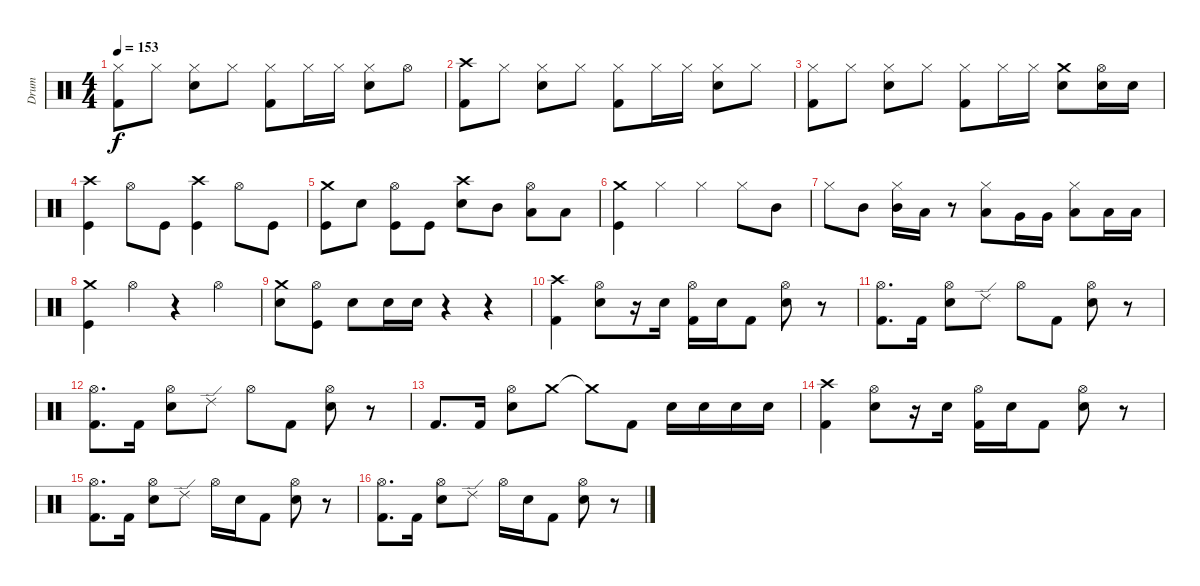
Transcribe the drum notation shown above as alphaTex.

\track ("Drum" "Drum") {instrument percussion}
\staff {score}
\articulation defaults
\ts (4 4)
\tempo 153
\clef neutral
\ks c
("Hi-Hat (closed)" "Kick (hit) 2").8{dy f} "Hi-Hat (closed)".8 ("Hi-Hat (closed)" "Electric Snare (hit)").8 "Hi-Hat (closed)".8 ("Hi-Hat (closed)" "Kick (hit) 2").8 "Hi-Hat (closed)".16 "Hi-Hat (closed)".16 ("Hi-Hat (closed)" "Electric Snare (hit)").8 "Hi-Hat (open)".8 |
("Kick (hit) 2" "Crash high (hit)").8 "Hi-Hat (closed)".8 ("Hi-Hat (closed)" "Electric Snare (hit)").8 "Hi-Hat (closed)".8 ("Hi-Hat (closed)" "Kick (hit) 2").8 "Hi-Hat (closed)".16 "Hi-Hat (closed)".16 ("Hi-Hat (closed)" "Electric Snare (hit)").8 "Hi-Hat (closed)".8 |
("Hi-Hat (closed)" "Kick (hit) 2").8 "Hi-Hat (closed)".8 ("Hi-Hat (closed)" "Electric Snare (hit)").8 "Hi-Hat (closed)".8 ("Hi-Hat (closed)" "Kick (hit) 2").8 "Hi-Hat (closed)".16 "Hi-Hat (closed)".16 ("Electric Snare (hit)" "Crash medium (hit)").8 ("Hi-Hat (open)" "Electric Snare (hit)").16 "Electric Snare (hit)".16 |
("Kick (hit)" "Crash high (hit)").4 "Hi-Hat (open)".8 "Kick (hit)".8 ("Kick (hit)" "Crash high (hit)").4 "Hi-Hat (open)".8 "Kick (hit)".8 |
("Kick (hit)" "Crash medium (hit)").8 "Electric Snare (hit)".8 ("Hi-Hat (open)" "Kick (hit)").8 "Kick (hit)".8 ("Crash high (hit)" "Electric Snare (hit)").8 "Mid Tom (hit)".8 ("Hi-Hat (open)" "Low Tom (hit)").8 "Low Floor Tom (hit)".8 |
("Kick (hit)" "Crash medium (hit)").4 "Hi-Hat (closed)".4 "Hi-Hat (closed)".4 "Hi-Hat (closed)".8 "Mid Tom (hit)".8 |
"Hi-Hat (closed)".8 "Mid Tom (hit)".8 ("Mid Tom (hit)" "Hi-Hat (closed)").16 "Low Tom (hit)".16 r.8 ("Low Tom (hit)" "Hi-Hat (closed)").8 "Very Low Tom (hit)".16 "Very Low Tom (hit)".16 ("Low Floor Tom (hit)" "Hi-Hat (closed)").8 "Low Floor Tom (hit)".16 "Low Floor Tom (hit)".16 |
("Kick (hit)" "Crash medium (hit)").4 "Hi-Hat (open)".4 r.4 "Hi-Hat (open)".4 |
("Snare (hit) 2" "Crash medium (hit)").8 ("Kick (hit)" "Hi-Hat (open)").8 "Snare (hit) 2".8 "Snare (hit) 2".16 "Snare (hit) 2".16 r.4 r.4 |
("Crash high (hit)" "Kick (hit) 2").4 ("Hi-Hat (open)" "Snare (hit) 2").8 r.16 "Snare (hit) 2".16 ("Hi-Hat (open)" "Kick (hit) 2").16 "Snare (hit) 2".16 "Kick (hit) 2".8 ("Hi-Hat (open)" "Snare (hit) 2").8 r.8 |
("Hi-Hat (open)" "Kick (hit) 2").8{d} "Kick (hit) 2".16 ("Hi-Hat (open)" "Snare (hit) 2").8 "Ride (edge) 2".8 "Hi-Hat (open)".8 "Kick (hit) 2".8 ("Hi-Hat (open)" "Snare (hit) 2").8 r.8 |
("Hi-Hat (open)" "Kick (hit) 2").8{d} "Kick (hit) 2".16 ("Hi-Hat (open)" "Snare (hit) 2").8 "Ride (edge) 2".8 "Hi-Hat (open)".8 "Kick (hit) 2".8 ("Hi-Hat (open)" "Snare (hit) 2").8 r.8 |
"Kick (hit) 2".8{d} "Kick (hit) 2".16 ("Hi-Hat (open)" "Snare (hit) 2").8 "Crash medium (hit)".8 "Crash medium (hit)"{t}.8 "Kick (hit) 2".8 "Electric Snare (hit)".16 "Electric Snare (hit)".16 "Electric Snare (hit)".16 "Electric Snare (hit)".16 |
("Crash high (hit)" "Kick (hit) 2").4 ("Hi-Hat (open)" "Snare (hit) 2").8 r.16 "Snare (hit) 2".16 ("Hi-Hat (open)" "Kick (hit) 2").16 "Snare (hit) 2".16 "Kick (hit) 2".8 ("Hi-Hat (open)" "Snare (hit) 2").8 r.8 |
("Hi-Hat (open)" "Kick (hit) 2").8{d} "Kick (hit) 2".16 ("Hi-Hat (open)" "Snare (hit) 2").8 "Ride (edge) 2".8 "Hi-Hat (open)".16 "Electric Snare (hit)".16 "Kick (hit) 2".8 ("Hi-Hat (open)" "Snare (hit) 2").8 r.8 |
("Hi-Hat (open)" "Kick (hit) 2").8{d} "Kick (hit) 2".16 ("Hi-Hat (open)" "Snare (hit) 2").8 "Ride (edge) 2".8 "Hi-Hat (open)".16 "Electric Snare (hit)".16 "Kick (hit) 2".8 ("Hi-Hat (open)" "Snare (hit) 2").8 r.8
